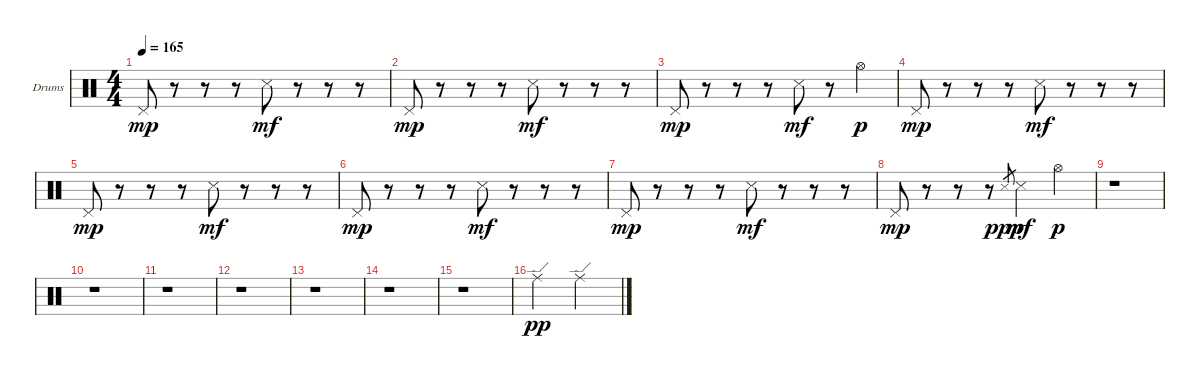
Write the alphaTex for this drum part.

\defaultSystemsLayout 4
\bracketExtendMode groupsimilarinstruments
\firstSystemTrackNameOrientation horizontal
\otherSystemsTrackNameOrientation horizontal
\track ("Drumkit" "Drums") {instrument percussion}
\staff {score}
\articulation defaults
\ts (4 4)
\tempo 165
\clef neutral
\ks c "Pedal Hi-Hat (hit)".8{dy mp}
r.8 r.8 r.8 "Snare (side stick) 3".8{dy mf} r.8 r.8 r.8 |
"Pedal Hi-Hat (hit)".8{dy mp} r.8 r.8 r.8 "Snare (side stick) 3".8{dy mf} r.8 r.8 r.8 |
"Pedal Hi-Hat (hit)".8{dy mp} r.8 r.8 r.8 "Snare (side stick) 3".8{dy mf} r.8 "Hi-Hat (open)".4{dy p} |
"Pedal Hi-Hat (hit)".8{dy mp} r.8 r.8 r.8 "Snare (side stick) 3".8{dy mf} r.8 r.8 r.8 |
"Pedal Hi-Hat (hit)".8{dy mp} r.8 r.8 r.8 "Snare (side stick) 3".8{dy mf} r.8 r.8 r.8 |
"Pedal Hi-Hat (hit)".8{dy mp} r.8 r.8 r.8 "Snare (side stick) 3".8{dy mf} r.8 r.8 r.8 |
"Pedal Hi-Hat (hit)".8{dy mp} r.8 r.8 r.8 "Snare (side stick) 3".8{dy mf} r.8 r.8 r.8 |
"Pedal Hi-Hat (hit)".8{dy mp} r.8 r.8 r.8 "Snare (side stick) 3".8{gr dy ppp} "Snare (side stick) 3".4{dy mf} "Hi-Hat (open)".4{dy p} |
r.1 |
r.1 |
r.1 |
r.1 |
r.1 |
r.1 |
r.1 |
"Ride (edge)".2{dy pp} "Ride (edge)".2
